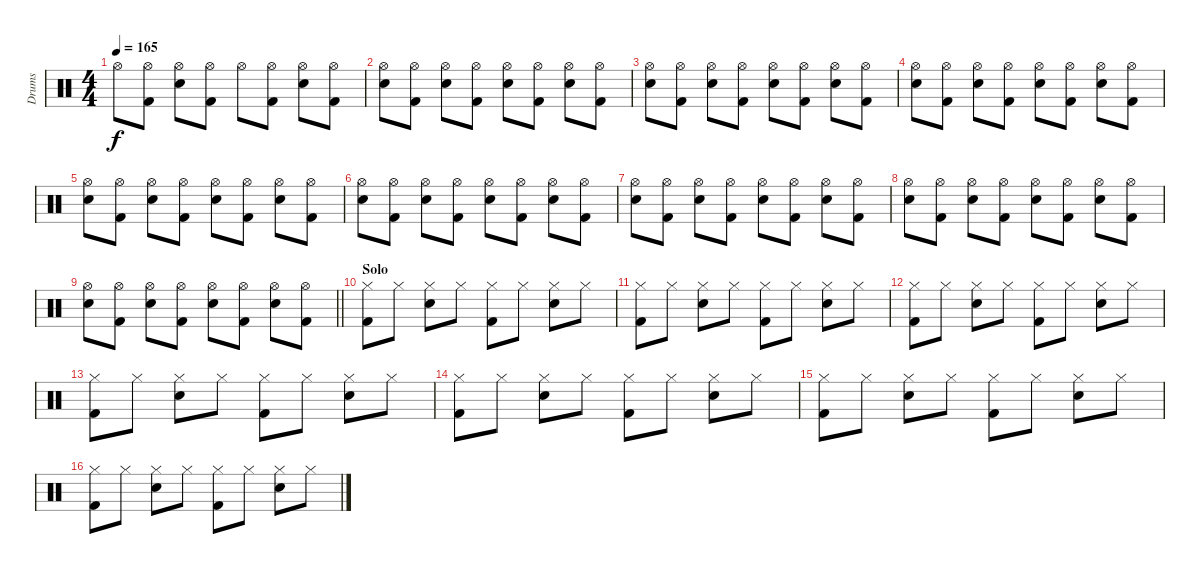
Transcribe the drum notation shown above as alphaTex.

\track ("Drums" "Drums") {instrument percussion}
\staff {score}
\articulation defaults
\ts (4 4)
\tempo 165
\clef neutral
\ks c "Hi-Hat (open)".8{dy f}
("Hi-Hat (open)" "Kick (hit) 2").8 ("Hi-Hat (open)" "Snare (hit) 2").8 ("Hi-Hat (open)" "Kick (hit) 2").8 "Hi-Hat (open)".8 ("Hi-Hat (open)" "Kick (hit) 2").8 ("Hi-Hat (open)" "Snare (hit) 2").8 ("Hi-Hat (open)" "Kick (hit) 2").8 |
("Snare (hit) 2" "Hi-Hat (open)").8 ("Kick (hit) 2" "Hi-Hat (open)").8 ("Snare (hit) 2" "Hi-Hat (open)").8 ("Kick (hit) 2" "Hi-Hat (open)").8 ("Hi-Hat (open)" "Snare (hit) 2").8 ("Hi-Hat (open)" "Kick (hit) 2").8 ("Hi-Hat (open)" "Snare (hit) 2").8 ("Hi-Hat (open)" "Kick (hit) 2").8 |
("Hi-Hat (open)" "Snare (hit) 2").8 ("Hi-Hat (open)" "Kick (hit) 2").8 ("Hi-Hat (open)" "Snare (hit) 2").8 ("Hi-Hat (open)" "Kick (hit) 2").8 ("Hi-Hat (open)" "Snare (hit) 2").8 ("Hi-Hat (open)" "Kick (hit) 2").8 ("Hi-Hat (open)" "Snare (hit) 2").8 ("Hi-Hat (open)" "Kick (hit) 2").8 |
("Hi-Hat (open)" "Snare (hit) 2").8 ("Hi-Hat (open)" "Kick (hit) 2").8 ("Hi-Hat (open)" "Snare (hit) 2").8 ("Hi-Hat (open)" "Kick (hit) 2").8 ("Hi-Hat (open)" "Snare (hit) 2").8 ("Hi-Hat (open)" "Kick (hit) 2").8 ("Hi-Hat (open)" "Snare (hit) 2").8 ("Hi-Hat (open)" "Kick (hit) 2").8 |
("Hi-Hat (open)" "Snare (hit) 2").8 ("Hi-Hat (open)" "Kick (hit) 2").8 ("Hi-Hat (open)" "Snare (hit) 2").8 ("Hi-Hat (open)" "Kick (hit) 2").8 ("Hi-Hat (open)" "Snare (hit) 2").8 ("Hi-Hat (open)" "Kick (hit) 2").8 ("Hi-Hat (open)" "Snare (hit) 2").8 ("Hi-Hat (open)" "Kick (hit) 2").8 |
("Hi-Hat (open)" "Snare (hit) 2").8 ("Hi-Hat (open)" "Kick (hit) 2").8 ("Hi-Hat (open)" "Snare (hit) 2").8 ("Hi-Hat (open)" "Kick (hit) 2").8 ("Hi-Hat (open)" "Snare (hit) 2").8 ("Hi-Hat (open)" "Kick (hit) 2").8 ("Hi-Hat (open)" "Snare (hit) 2").8 ("Hi-Hat (open)" "Kick (hit) 2").8 |
("Hi-Hat (open)" "Snare (hit) 2").8 ("Hi-Hat (open)" "Kick (hit) 2").8 ("Hi-Hat (open)" "Snare (hit) 2").8 ("Hi-Hat (open)" "Kick (hit) 2").8 ("Hi-Hat (open)" "Snare (hit) 2").8 ("Hi-Hat (open)" "Kick (hit) 2").8 ("Hi-Hat (open)" "Snare (hit) 2").8 ("Hi-Hat (open)" "Kick (hit) 2").8 |
("Hi-Hat (open)" "Snare (hit) 2").8 ("Hi-Hat (open)" "Kick (hit) 2").8 ("Hi-Hat (open)" "Snare (hit) 2").8 ("Hi-Hat (open)" "Kick (hit) 2").8 ("Hi-Hat (open)" "Snare (hit) 2").8 ("Hi-Hat (open)" "Kick (hit) 2").8 ("Hi-Hat (open)" "Snare (hit) 2").8 ("Hi-Hat (open)" "Kick (hit) 2").8 |
\barLineRight lightlight
("Hi-Hat (open)" "Snare (hit) 2").8 ("Hi-Hat (open)" "Kick (hit) 2").8 ("Hi-Hat (open)" "Snare (hit) 2").8 ("Hi-Hat (open)" "Kick (hit) 2").8 ("Hi-Hat (open)" "Snare (hit) 2").8 ("Hi-Hat (open)" "Kick (hit) 2").8 ("Hi-Hat (open)" "Snare (hit) 2").8 ("Hi-Hat (open)" "Kick (hit) 2").8 |
\section ("" "Solo")
("Kick (hit) 2" "Hi-Hat (closed)").8 "Hi-Hat (closed)".8 ("Snare (hit) 2" "Hi-Hat (closed)").8 "Hi-Hat (closed)".8 ("Kick (hit) 2" "Hi-Hat (closed)").8 "Hi-Hat (closed)".8 ("Snare (hit) 2" "Hi-Hat (closed)").8 "Hi-Hat (closed)".8 |
("Hi-Hat (closed)" "Kick (hit) 2").8 "Hi-Hat (closed)".8 ("Hi-Hat (closed)" "Snare (hit) 2").8 "Hi-Hat (closed)".8 ("Hi-Hat (closed)" "Kick (hit) 2").8 "Hi-Hat (closed)".8 ("Hi-Hat (closed)" "Snare (hit) 2").8 "Hi-Hat (closed)".8 |
("Hi-Hat (closed)" "Kick (hit) 2").8 "Hi-Hat (closed)".8 ("Hi-Hat (closed)" "Snare (hit) 2").8 "Hi-Hat (closed)".8 ("Hi-Hat (closed)" "Kick (hit) 2").8 "Hi-Hat (closed)".8 ("Hi-Hat (closed)" "Snare (hit) 2").8 "Hi-Hat (closed)".8 |
("Hi-Hat (closed)" "Kick (hit) 2").8 "Hi-Hat (closed)".8 ("Hi-Hat (closed)" "Snare (hit) 2").8 "Hi-Hat (closed)".8 ("Hi-Hat (closed)" "Kick (hit) 2").8 "Hi-Hat (closed)".8 ("Hi-Hat (closed)" "Snare (hit) 2").8 "Hi-Hat (closed)".8 |
("Kick (hit) 2" "Hi-Hat (closed)").8 "Hi-Hat (closed)".8 ("Snare (hit) 2" "Hi-Hat (closed)").8 "Hi-Hat (closed)".8 ("Kick (hit) 2" "Hi-Hat (closed)").8 "Hi-Hat (closed)".8 ("Snare (hit) 2" "Hi-Hat (closed)").8 "Hi-Hat (closed)".8 |
("Kick (hit) 2" "Hi-Hat (closed)").8 "Hi-Hat (closed)".8 ("Snare (hit) 2" "Hi-Hat (closed)").8 "Hi-Hat (closed)".8 ("Kick (hit) 2" "Hi-Hat (closed)").8 "Hi-Hat (closed)".8 ("Snare (hit) 2" "Hi-Hat (closed)").8 "Hi-Hat (closed)".8 |
("Hi-Hat (closed)" "Kick (hit) 2").8 "Hi-Hat (closed)".8 ("Hi-Hat (closed)" "Snare (hit) 2").8 "Hi-Hat (closed)".8 ("Hi-Hat (closed)" "Kick (hit) 2").8 "Hi-Hat (closed)".8 ("Hi-Hat (closed)" "Snare (hit) 2").8 "Hi-Hat (closed)".8
